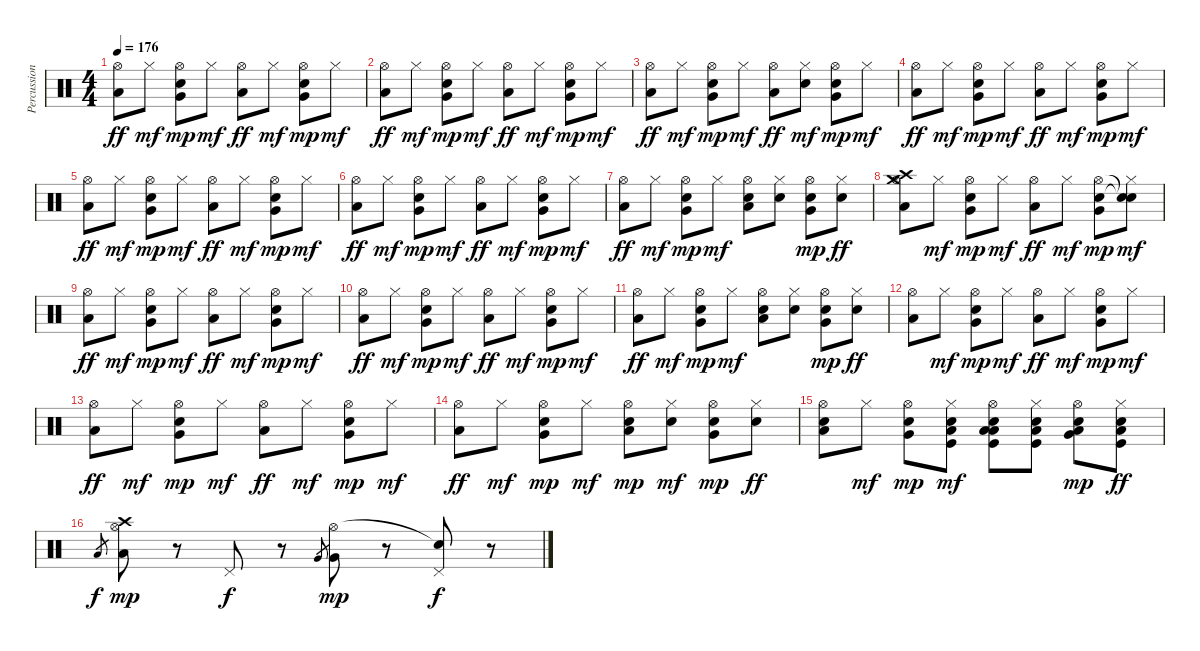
\track ("Percussions" "Percussion") {instrument percussion}
\staff {score}
\articulation defaults
\ts (4 4)
\tempo 176
\clef neutral
\ks c
("Hi-Hat (open)" "Low Floor Tom (hit)").8{dy ff} "Hi-Hat (closed)".8{dy mf} ("Hi-Hat (open)" "Electric Snare (hit)" "Very Low Tom (hit)").8{dy mp} "Hi-Hat (closed)".8{dy mf} ("Hi-Hat (open)" "Low Floor Tom (hit)").8{dy ff} "Hi-Hat (closed)".8{dy mf} ("Hi-Hat (open)" "Electric Snare (hit)" "Very Low Tom (hit)").8{dy mp} "Hi-Hat (closed)".8{dy mf} |
("Hi-Hat (open)" "Low Floor Tom (hit)").8{dy ff} "Hi-Hat (closed)".8{dy mf} ("Hi-Hat (open)" "Electric Snare (hit)" "Very Low Tom (hit)").8{dy mp} "Hi-Hat (closed)".8{dy mf} ("Hi-Hat (open)" "Low Floor Tom (hit)").8{dy ff} "Hi-Hat (closed)".8{dy mf} ("Hi-Hat (open)" "Electric Snare (hit)" "Very Low Tom (hit)").8{dy mp} "Hi-Hat (closed)".8{dy mf} |
("Hi-Hat (open)" "Low Floor Tom (hit)").8{dy ff} "Hi-Hat (closed)".8{dy mf} ("Hi-Hat (open)" "Electric Snare (hit)" "Very Low Tom (hit)").8{dy mp} "Hi-Hat (closed)".8{dy mf} ("Hi-Hat (open)" "Low Floor Tom (hit)").8{dy ff} ("Hi-Hat (closed)" "Electric Snare (hit)").8{dy mf} ("Hi-Hat (open)" "Electric Snare (hit)" "Very Low Tom (hit)").8{dy mp} "Hi-Hat (closed)".8{dy mf} |
("Hi-Hat (open)" "Low Floor Tom (hit)").8{dy ff} "Hi-Hat (closed)".8{dy mf} ("Hi-Hat (open)" "Electric Snare (hit)" "Very Low Tom (hit)").8{dy mp} "Hi-Hat (closed)".8{dy mf} ("Hi-Hat (open)" "Low Floor Tom (hit)").8{dy ff} "Hi-Hat (closed)".8{dy mf} ("Hi-Hat (open)" "Electric Snare (hit)" "Very Low Tom (hit)").8{dy mp} "Hi-Hat (closed)".8{dy mf} |
("Hi-Hat (open)" "Low Floor Tom (hit)").8{dy ff} "Hi-Hat (closed)".8{dy mf} ("Hi-Hat (open)" "Electric Snare (hit)" "Very Low Tom (hit)").8{dy mp} "Hi-Hat (closed)".8{dy mf} ("Hi-Hat (open)" "Low Floor Tom (hit)").8{dy ff} "Hi-Hat (closed)".8{dy mf} ("Hi-Hat (open)" "Electric Snare (hit)" "Very Low Tom (hit)").8{dy mp} "Hi-Hat (closed)".8{dy mf} |
("Hi-Hat (open)" "Low Floor Tom (hit)").8{dy ff} "Hi-Hat (closed)".8{dy mf} ("Hi-Hat (open)" "Electric Snare (hit)" "Very Low Tom (hit)").8{dy mp} "Hi-Hat (closed)".8{dy mf} ("Hi-Hat (open)" "Low Floor Tom (hit)").8{dy ff} "Hi-Hat (closed)".8{dy mf} ("Hi-Hat (open)" "Electric Snare (hit)" "Very Low Tom (hit)").8{dy mp} "Hi-Hat (closed)".8{dy mf} |
("Hi-Hat (open)" "Low Floor Tom (hit)").8{dy ff} "Hi-Hat (closed)".8{dy mf} ("Hi-Hat (open)" "Electric Snare (hit)" "Very Low Tom (hit)").8{dy mp} "Hi-Hat (closed)".8{dy mf} ("Hi-Hat (open)" "Low Floor Tom (hit)" "Electric Snare (hit)").8 ("Hi-Hat (closed)" "Electric Snare (hit)").8 ("Hi-Hat (open)" "Very Low Tom (hit)" "Electric Snare (hit)").8{dy mp} ("Hi-Hat (closed)" "Electric Snare (hit)").8{dy ff} |
("Crash high (hit)" "Crash medium (hit)" "Hi-Hat (open)" "Low Floor Tom (hit)").8 "Hi-Hat (closed)".8{dy mf} ("Hi-Hat (open)" "Electric Snare (hit)" "Very Low Tom (hit)").8{dy mp} "Hi-Hat (closed)".8{dy mf} ("Hi-Hat (open)" "Low Floor Tom (hit)").8{dy ff} "Hi-Hat (closed)".8{dy mf} ("Hi-Hat (open)" "Electric Snare (hit)" "Very Low Tom (hit)").8{dy mp} ("Snare (hit)"{t} "Snare (hit)"{t} "Hi-Hat (closed)").8{dy mf} |
("Hi-Hat (open)" "Low Floor Tom (hit)").8{dy ff} "Hi-Hat (closed)".8{dy mf} ("Hi-Hat (open)" "Electric Snare (hit)" "Very Low Tom (hit)").8{dy mp} "Hi-Hat (closed)".8{dy mf} ("Hi-Hat (open)" "Low Floor Tom (hit)").8{dy ff} "Hi-Hat (closed)".8{dy mf} ("Hi-Hat (open)" "Electric Snare (hit)" "Very Low Tom (hit)").8{dy mp} "Hi-Hat (closed)".8{dy mf} |
("Hi-Hat (open)" "Low Floor Tom (hit)").8{dy ff} "Hi-Hat (closed)".8{dy mf} ("Hi-Hat (open)" "Electric Snare (hit)" "Very Low Tom (hit)").8{dy mp} "Hi-Hat (closed)".8{dy mf} ("Hi-Hat (open)" "Low Floor Tom (hit)").8{dy ff} "Hi-Hat (closed)".8{dy mf} ("Hi-Hat (open)" "Electric Snare (hit)" "Very Low Tom (hit)").8{dy mp} "Hi-Hat (closed)".8{dy mf} |
("Hi-Hat (open)" "Low Floor Tom (hit)").8{dy ff} "Hi-Hat (closed)".8{dy mf} ("Hi-Hat (open)" "Electric Snare (hit)" "Very Low Tom (hit)").8{dy mp} "Hi-Hat (closed)".8{dy mf} ("Hi-Hat (open)" "Low Floor Tom (hit)" "Electric Snare (hit)").8 ("Hi-Hat (closed)" "Electric Snare (hit)").8 ("Hi-Hat (open)" "Very Low Tom (hit)" "Electric Snare (hit)").8{dy mp} ("Hi-Hat (closed)" "Electric Snare (hit)").8{dy ff} |
("Hi-Hat (open)" "Low Floor Tom (hit)").8 "Hi-Hat (closed)".8{dy mf} ("Hi-Hat (open)" "Electric Snare (hit)" "Very Low Tom (hit)").8{dy mp} "Hi-Hat (closed)".8{dy mf} ("Hi-Hat (open)" "Low Floor Tom (hit)").8{dy ff} "Hi-Hat (closed)".8{dy mf} ("Hi-Hat (open)" "Electric Snare (hit)" "Very Low Tom (hit)").8{dy mp} "Hi-Hat (closed)".8{dy mf} |
("Hi-Hat (open)" "Low Floor Tom (hit)").8{dy ff} "Hi-Hat (closed)".8{dy mf} ("Hi-Hat (open)" "Electric Snare (hit)" "Very Low Tom (hit)").8{dy mp} "Hi-Hat (closed)".8{dy mf} ("Hi-Hat (open)" "Low Floor Tom (hit)").8{dy ff} "Hi-Hat (closed)".8{dy mf} ("Hi-Hat (open)" "Electric Snare (hit)" "Very Low Tom (hit)").8{dy mp} "Hi-Hat (closed)".8{dy mf} |
("Hi-Hat (open)" "Low Floor Tom (hit)").8{dy ff} "Hi-Hat (closed)".8{dy mf} ("Hi-Hat (open)" "Electric Snare (hit)" "Very Low Tom (hit)").8{dy mp} "Hi-Hat (closed)".8{dy mf} ("Hi-Hat (open)" "Low Floor Tom (hit)" "Electric Snare (hit)").8{dy mp} ("Hi-Hat (closed)" "Electric Snare (hit)").8{dy mf} ("Hi-Hat (open)" "Very Low Tom (hit)" "Electric Snare (hit)").8{dy mp} ("Hi-Hat (closed)" "Electric Snare (hit)").8{dy ff} |
("Hi-Hat (open)" "Low Floor Tom (hit)" "Electric Snare (hit)").8 "Hi-Hat (closed)".8{dy mf} ("Hi-Hat (open)" "Electric Snare (hit)" "Very Low Tom (hit)").8{dy mp} ("Electric Snare (hit)" "Hi-Hat (closed)" "Low Floor Tom (hit)" "Kick (hit)").8{dy mf} ("Electric Snare (hit)" "Hi-Hat (open)" "Low Floor Tom (hit)" "Kick (hit)" "Low Floor Tom (hit)").8 ("Electric Snare (hit)" "Hi-Hat (closed)" "Kick (hit)" "Low Floor Tom (hit)").8 ("Electric Snare (hit)" "Hi-Hat (open)" "Very Low Tom (hit)" "Low Floor Tom (hit)").8{dy mp} ("Electric Snare (hit)" "Hi-Hat (closed)" "Kick (hit)" "Low Floor Tom (hit)").8{dy ff} |
"Low Floor Tom (hit)".8{gr dy f} ("Crash high (hit)" "Hi-Hat (open)" "Low Floor Tom (hit)").8{dy mp} r.8 "Pedal Hi-Hat (hit)".8{dy f} r.8 "Very Low Tom (hit)".8{gr} ("Hi-Hat (open)" "Very Low Tom (hit)").8{dy mp} r.8 ("Snare (hit)"{t} "Pedal Hi-Hat (hit)").8{dy f} r.8
